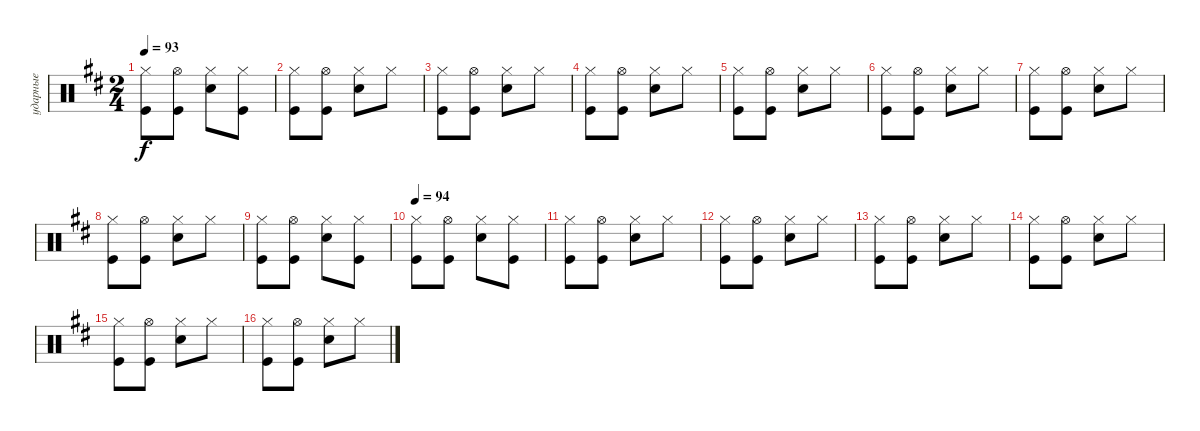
\track ("ударные" "ударные") {instrument percussion}
\staff {score}
\articulation defaults
\ts (2 4)
\tempo 93
\clef neutral
\ks bminor
("Kick (hit)" "Hi-Hat (closed)").8{dy f} ("Kick (hit)" "Hi-Hat (open)").8 ("Snare (hit) 2" "Hi-Hat (closed)").8 ("Hi-Hat (closed)" "Kick (hit)").8 |
("Kick (hit)" "Hi-Hat (closed)").8 ("Kick (hit)" "Hi-Hat (open)").8 ("Snare (hit) 2" "Hi-Hat (closed)").8 "Hi-Hat (closed)".8 |
("Kick (hit)" "Hi-Hat (closed)").8 ("Kick (hit)" "Hi-Hat (open)").8 ("Snare (hit) 2" "Hi-Hat (closed)").8 "Hi-Hat (closed)".8 |
("Kick (hit)" "Hi-Hat (closed)").8 ("Kick (hit)" "Hi-Hat (open)").8 ("Snare (hit) 2" "Hi-Hat (closed)").8 "Hi-Hat (closed)".8 |
("Kick (hit)" "Hi-Hat (closed)").8 ("Kick (hit)" "Hi-Hat (open)").8 ("Snare (hit) 2" "Hi-Hat (closed)").8 "Hi-Hat (closed)".8 |
("Kick (hit)" "Hi-Hat (closed)").8 ("Kick (hit)" "Hi-Hat (open)").8 ("Snare (hit) 2" "Hi-Hat (closed)").8 "Hi-Hat (closed)".8 |
("Kick (hit)" "Hi-Hat (closed)").8 ("Kick (hit)" "Hi-Hat (open)").8 ("Snare (hit) 2" "Hi-Hat (closed)").8 "Hi-Hat (closed)".8 |
("Kick (hit)" "Hi-Hat (closed)").8 ("Kick (hit)" "Hi-Hat (open)").8 ("Snare (hit) 2" "Hi-Hat (closed)").8 "Hi-Hat (closed)".8 |
("Kick (hit)" "Hi-Hat (closed)").8 ("Kick (hit)" "Hi-Hat (open)").8 ("Snare (hit) 2" "Hi-Hat (closed)").8 ("Hi-Hat (closed)" "Kick (hit)").8 |
\tempo 94
("Kick (hit)" "Hi-Hat (closed)").8 ("Kick (hit)" "Hi-Hat (open)").8 ("Snare (hit) 2" "Hi-Hat (closed)").8 ("Hi-Hat (closed)" "Kick (hit)").8 |
("Kick (hit)" "Hi-Hat (closed)").8 ("Kick (hit)" "Hi-Hat (open)").8 ("Snare (hit) 2" "Hi-Hat (closed)").8 "Hi-Hat (closed)".8 |
("Kick (hit)" "Hi-Hat (closed)").8 ("Kick (hit)" "Hi-Hat (open)").8 ("Snare (hit) 2" "Hi-Hat (closed)").8 "Hi-Hat (closed)".8 |
("Kick (hit)" "Hi-Hat (closed)").8 ("Kick (hit)" "Hi-Hat (open)").8 ("Snare (hit) 2" "Hi-Hat (closed)").8 "Hi-Hat (closed)".8 |
("Kick (hit)" "Hi-Hat (closed)").8 ("Kick (hit)" "Hi-Hat (open)").8 ("Snare (hit) 2" "Hi-Hat (closed)").8 "Hi-Hat (closed)".8 |
("Kick (hit)" "Hi-Hat (closed)").8 ("Kick (hit)" "Hi-Hat (open)").8 ("Snare (hit) 2" "Hi-Hat (closed)").8 "Hi-Hat (closed)".8 |
("Kick (hit)" "Hi-Hat (closed)").8 ("Kick (hit)" "Hi-Hat (open)").8 ("Snare (hit) 2" "Hi-Hat (closed)").8 "Hi-Hat (closed)".8
